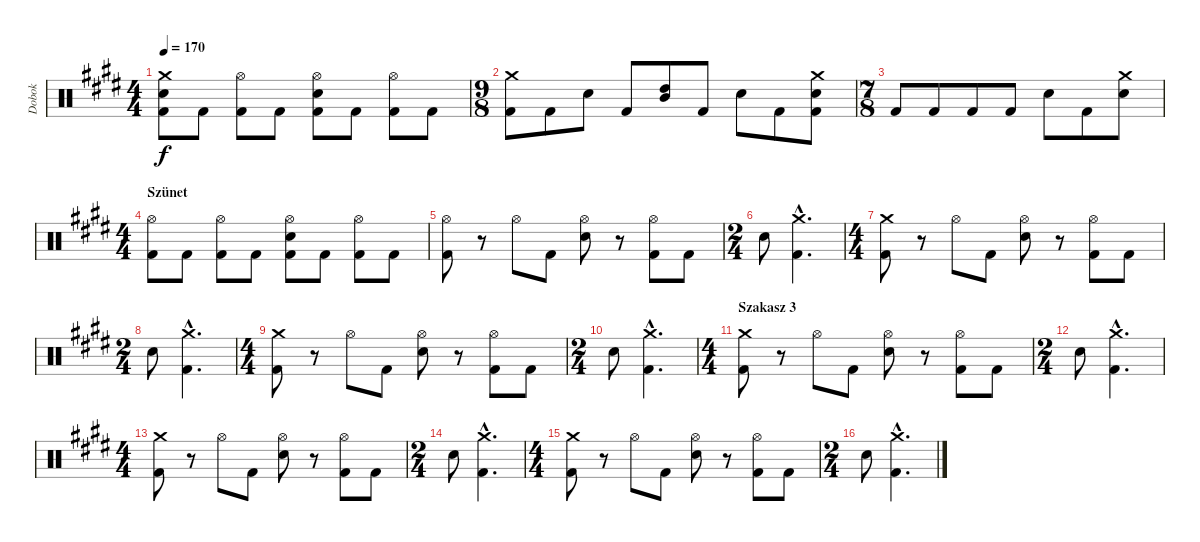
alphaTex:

\track ("Dobok" "Dobok") {instrument percussion}
\staff {score}
\articulation defaults
\ts (4 4)
\tempo 170
\clef neutral
\ks c#minor
("Crash medium (hit)" "Snare (hit) 2" "Kick (hit) 2").8{dy f} "Kick (hit) 2".8 ("Hi-Hat (open)" "Kick (hit) 2").8 "Kick (hit) 2".8 ("Hi-Hat (open)" "Snare (hit) 2" "Kick (hit) 2").8 "Kick (hit) 2".8 ("Hi-Hat (open)" "Kick (hit) 2").8 "Kick (hit) 2".8 |
\ts (9 8)
("Crash medium (hit)" "Kick (hit) 2").8 "Kick (hit) 2".8 "Snare (hit) 2".8 "Kick (hit) 2".8 ("High Tom (hit)" "Mid Tom (hit)").8 "Kick (hit) 2".8 "Snare (hit) 2".8 "Kick (hit) 2".8 ("Crash medium (hit)" "Snare (hit) 2" "Kick (hit) 2").8 |
\ts (7 8)
"Kick (hit) 2".8 "Kick (hit) 2".8 "Kick (hit) 2".8 "Kick (hit) 2".8 "Snare (hit) 2".8 "Kick (hit) 2".8 ("Crash medium (hit)" "Snare (hit) 2").8 |
\ts (4 4)
\section ("" "Szünet")
("Hi-Hat (open)" "Kick (hit) 2").8 "Kick (hit) 2".8 ("Hi-Hat (open)" "Kick (hit) 2").8 "Kick (hit) 2".8 ("Hi-Hat (open)" "Snare (hit) 2" "Kick (hit) 2").8 "Kick (hit) 2".8 ("Hi-Hat (open)" "Kick (hit) 2").8 "Kick (hit) 2".8 |
("Hi-Hat (open)" "Kick (hit) 2").8 r.8 "Hi-Hat (open)".8 "Kick (hit) 2".8 ("Hi-Hat (open)" "Snare (hit) 2").8 r.8 ("Hi-Hat (open)" "Kick (hit) 2").8 "Kick (hit) 2".8 |
\ts (2 4)
"Snare (hit) 2".8 ("Crash medium (hit)"{hac} "Kick (hit) 2"{hac}).4{d} |
\ts (4 4)
("Crash medium (hit)" "Kick (hit) 2").8 r.8 "Hi-Hat (open)".8 "Kick (hit) 2".8 ("Hi-Hat (open)" "Snare (hit) 2").8 r.8 ("Hi-Hat (open)" "Kick (hit) 2").8 "Kick (hit) 2".8 |
\ts (2 4)
"Snare (hit) 2".8 ("Crash medium (hit)"{hac} "Kick (hit) 2"{hac}).4{d} |
\ts (4 4)
("Crash medium (hit)" "Kick (hit) 2").8 r.8 "Hi-Hat (open)".8 "Kick (hit) 2".8 ("Hi-Hat (open)" "Snare (hit) 2").8 r.8 ("Hi-Hat (open)" "Kick (hit) 2").8 "Kick (hit) 2".8 |
\ts (2 4)
"Snare (hit) 2".8 ("Crash medium (hit)"{hac} "Kick (hit) 2"{hac}).4{d} |
\ts (4 4)
\section ("" "Szakasz 3")
("Crash medium (hit)" "Kick (hit) 2").8 r.8 "Hi-Hat (open)".8 "Kick (hit) 2".8 ("Hi-Hat (open)" "Snare (hit) 2").8 r.8 ("Hi-Hat (open)" "Kick (hit) 2").8 "Kick (hit) 2".8 |
\ts (2 4)
"Snare (hit) 2".8 ("Crash medium (hit)"{hac} "Kick (hit) 2"{hac}).4{d} |
\ts (4 4)
("Crash medium (hit)" "Kick (hit) 2").8 r.8 "Hi-Hat (open)".8 "Kick (hit) 2".8 ("Hi-Hat (open)" "Snare (hit) 2").8 r.8 ("Hi-Hat (open)" "Kick (hit) 2").8 "Kick (hit) 2".8 |
\ts (2 4)
"Snare (hit) 2".8 ("Crash medium (hit)"{hac} "Kick (hit) 2"{hac}).4{d} |
\ts (4 4)
("Crash medium (hit)" "Kick (hit) 2").8 r.8 "Hi-Hat (open)".8 "Kick (hit) 2".8 ("Hi-Hat (open)" "Snare (hit) 2").8 r.8 ("Hi-Hat (open)" "Kick (hit) 2").8 "Kick (hit) 2".8 |
\ts (2 4)
"Snare (hit) 2".8 ("Crash medium (hit)"{hac} "Kick (hit) 2"{hac}).4{d}
